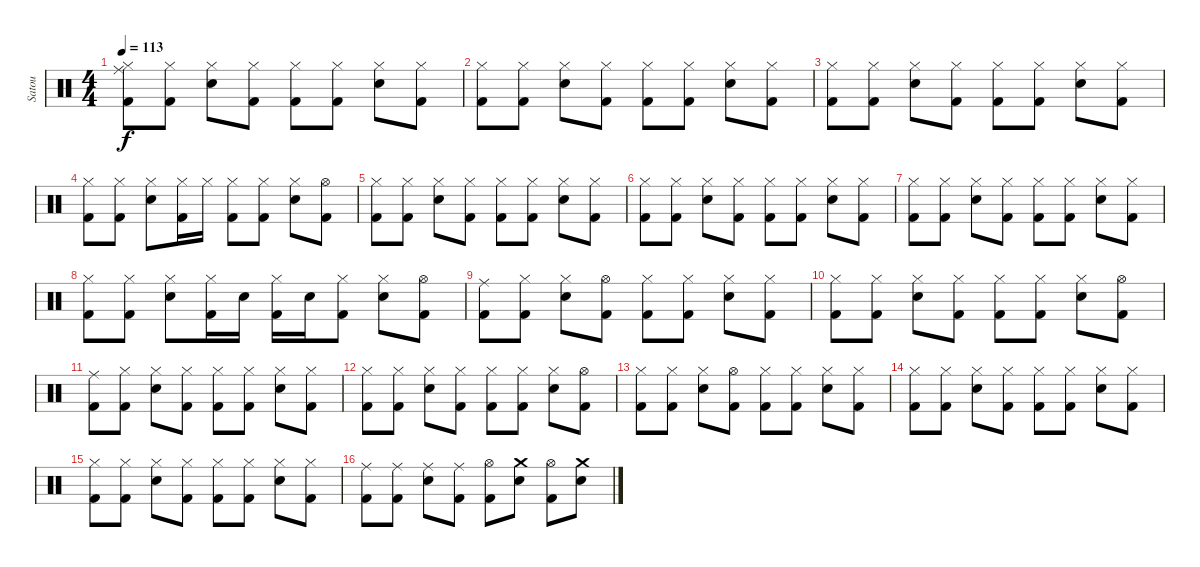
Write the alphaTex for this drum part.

\track ("Satou" "Satou") {instrument percussion}
\staff {score}
\articulation defaults
\ts (4 4)
\tempo 113
\clef neutral
\ks c
("Ride (middle)" "Hi-Hat (closed)" "Kick (hit) 2").8{dy f} ("Hi-Hat (closed)" "Kick (hit) 2").8 ("Hi-Hat (closed)" "Electric Snare (hit)").8 ("Hi-Hat (closed)" "Kick (hit) 2").8 ("Hi-Hat (closed)" "Kick (hit) 2").8 ("Hi-Hat (closed)" "Kick (hit) 2").8 ("Hi-Hat (closed)" "Electric Snare (hit)").8 ("Hi-Hat (closed)" "Kick (hit) 2").8 |
("Hi-Hat (closed)" "Kick (hit) 2").8 ("Hi-Hat (closed)" "Kick (hit) 2").8 ("Hi-Hat (closed)" "Electric Snare (hit)").8 ("Hi-Hat (closed)" "Kick (hit) 2").8 ("Hi-Hat (closed)" "Kick (hit) 2").8 ("Hi-Hat (closed)" "Kick (hit) 2").8 ("Hi-Hat (closed)" "Electric Snare (hit)").8 ("Hi-Hat (closed)" "Kick (hit) 2").8 |
("Hi-Hat (closed)" "Kick (hit) 2").8 ("Hi-Hat (closed)" "Kick (hit) 2").8 ("Hi-Hat (closed)" "Electric Snare (hit)").8 ("Hi-Hat (closed)" "Kick (hit) 2").8 ("Hi-Hat (closed)" "Kick (hit) 2").8 ("Hi-Hat (closed)" "Kick (hit) 2").8 ("Hi-Hat (closed)" "Electric Snare (hit)").8 ("Hi-Hat (closed)" "Kick (hit) 2").8 |
("Hi-Hat (closed)" "Kick (hit) 2").8 ("Hi-Hat (closed)" "Kick (hit) 2").8 ("Hi-Hat (closed)" "Electric Snare (hit)").8 ("Hi-Hat (closed)" "Kick (hit) 2").16 "Hi-Hat (closed)".16 ("Hi-Hat (closed)" "Kick (hit) 2").8 ("Hi-Hat (closed)" "Kick (hit) 2").8 ("Hi-Hat (closed)" "Electric Snare (hit)").8 ("Hi-Hat (open)" "Kick (hit) 2").8 |
("Hi-Hat (closed)" "Kick (hit) 2").8 ("Hi-Hat (closed)" "Kick (hit) 2").8 ("Hi-Hat (closed)" "Electric Snare (hit)").8 ("Hi-Hat (closed)" "Kick (hit) 2").8 ("Hi-Hat (closed)" "Kick (hit) 2").8 ("Hi-Hat (closed)" "Kick (hit) 2").8 ("Hi-Hat (closed)" "Electric Snare (hit)").8 ("Hi-Hat (closed)" "Kick (hit) 2").8 |
("Hi-Hat (closed)" "Kick (hit) 2").8 ("Hi-Hat (closed)" "Kick (hit) 2").8 ("Hi-Hat (closed)" "Electric Snare (hit)").8 ("Hi-Hat (closed)" "Kick (hit) 2").8 ("Hi-Hat (closed)" "Kick (hit) 2").8 ("Hi-Hat (closed)" "Kick (hit) 2").8 ("Hi-Hat (closed)" "Electric Snare (hit)").8 ("Hi-Hat (closed)" "Kick (hit) 2").8 |
("Hi-Hat (closed)" "Kick (hit) 2").8 ("Hi-Hat (closed)" "Kick (hit) 2").8 ("Hi-Hat (closed)" "Electric Snare (hit)").8 ("Hi-Hat (closed)" "Kick (hit) 2").8 ("Hi-Hat (closed)" "Kick (hit) 2").8 ("Hi-Hat (closed)" "Kick (hit) 2").8 ("Hi-Hat (closed)" "Electric Snare (hit)").8 ("Hi-Hat (closed)" "Kick (hit) 2").8 |
("Hi-Hat (closed)" "Kick (hit) 2").8 ("Hi-Hat (closed)" "Kick (hit) 2").8 ("Hi-Hat (closed)" "Electric Snare (hit)").8 ("Hi-Hat (closed)" "Kick (hit) 2").16 "Electric Snare (hit)".16 ("Hi-Hat (closed)" "Kick (hit) 2").16 "Electric Snare (hit)".16 ("Hi-Hat (closed)" "Kick (hit) 2").8 ("Hi-Hat (closed)" "Electric Snare (hit)").8 ("Hi-Hat (open)" "Kick (hit) 2").8 |
("Ride (middle)" "Kick (hit) 2").8 ("Hi-Hat (closed)" "Kick (hit) 2").8 ("Hi-Hat (closed)" "Electric Snare (hit)").8 ("Hi-Hat (open)" "Kick (hit) 2").8 ("Hi-Hat (closed)" "Kick (hit) 2").8 ("Hi-Hat (closed)" "Kick (hit) 2").8 ("Hi-Hat (closed)" "Electric Snare (hit)").8 ("Hi-Hat (closed)" "Kick (hit) 2").8 |
("Hi-Hat (closed)" "Kick (hit) 2").8 ("Hi-Hat (closed)" "Kick (hit) 2").8 ("Hi-Hat (closed)" "Electric Snare (hit)").8 ("Hi-Hat (closed)" "Kick (hit) 2").8 ("Hi-Hat (closed)" "Kick (hit) 2").8 ("Hi-Hat (closed)" "Kick (hit) 2").8 ("Hi-Hat (closed)" "Electric Snare (hit)").8 ("Hi-Hat (open)" "Kick (hit) 2").8 |
("Ride (middle)" "Kick (hit) 2").8 ("Hi-Hat (closed)" "Kick (hit) 2").8 ("Hi-Hat (closed)" "Electric Snare (hit)").8 ("Hi-Hat (closed)" "Kick (hit) 2").8 ("Hi-Hat (closed)" "Kick (hit) 2").8 ("Hi-Hat (closed)" "Kick (hit) 2").8 ("Hi-Hat (closed)" "Electric Snare (hit)").8 ("Hi-Hat (closed)" "Kick (hit) 2").8 |
("Hi-Hat (closed)" "Kick (hit) 2").8 ("Hi-Hat (closed)" "Kick (hit) 2").8 ("Hi-Hat (closed)" "Electric Snare (hit)").8 ("Hi-Hat (closed)" "Kick (hit) 2").8 ("Hi-Hat (closed)" "Kick (hit) 2").8 ("Hi-Hat (closed)" "Kick (hit) 2").8 ("Hi-Hat (closed)" "Electric Snare (hit)").8 ("Hi-Hat (open)" "Kick (hit) 2").8 |
("Hi-Hat (closed)" "Kick (hit) 2").8 ("Hi-Hat (closed)" "Kick (hit) 2").8 ("Hi-Hat (closed)" "Electric Snare (hit)").8 ("Hi-Hat (open)" "Kick (hit) 2").8 ("Hi-Hat (closed)" "Kick (hit) 2").8 ("Hi-Hat (closed)" "Kick (hit) 2").8 ("Hi-Hat (closed)" "Electric Snare (hit)").8 ("Hi-Hat (closed)" "Kick (hit) 2").8 |
("Hi-Hat (closed)" "Kick (hit) 2").8 ("Hi-Hat (closed)" "Kick (hit) 2").8 ("Hi-Hat (closed)" "Electric Snare (hit)").8 ("Hi-Hat (closed)" "Kick (hit) 2").8 ("Hi-Hat (closed)" "Kick (hit) 2").8 ("Hi-Hat (closed)" "Kick (hit) 2").8 ("Hi-Hat (closed)" "Electric Snare (hit)").8 ("Hi-Hat (closed)" "Kick (hit) 2").8 |
("Hi-Hat (closed)" "Kick (hit) 2").8 ("Hi-Hat (closed)" "Kick (hit) 2").8 ("Hi-Hat (closed)" "Electric Snare (hit)").8 ("Hi-Hat (closed)" "Kick (hit) 2").8 ("Hi-Hat (closed)" "Kick (hit) 2").8 ("Hi-Hat (closed)" "Kick (hit) 2").8 ("Hi-Hat (closed)" "Electric Snare (hit)").8 ("Hi-Hat (closed)" "Kick (hit) 2").8 |
("Ride (middle)" "Kick (hit) 2").8 ("Ride (middle)" "Kick (hit) 2").8 ("Ride (middle)" "Electric Snare (hit)").8 ("Ride (middle)" "Kick (hit) 2").8 ("Hi-Hat (open)" "Kick (hit) 2").8 ("Crash medium (hit)" "Electric Snare (hit)").8 ("Hi-Hat (open)" "Kick (hit) 2").8 ("Crash medium (hit)" "Electric Snare (hit)").8
